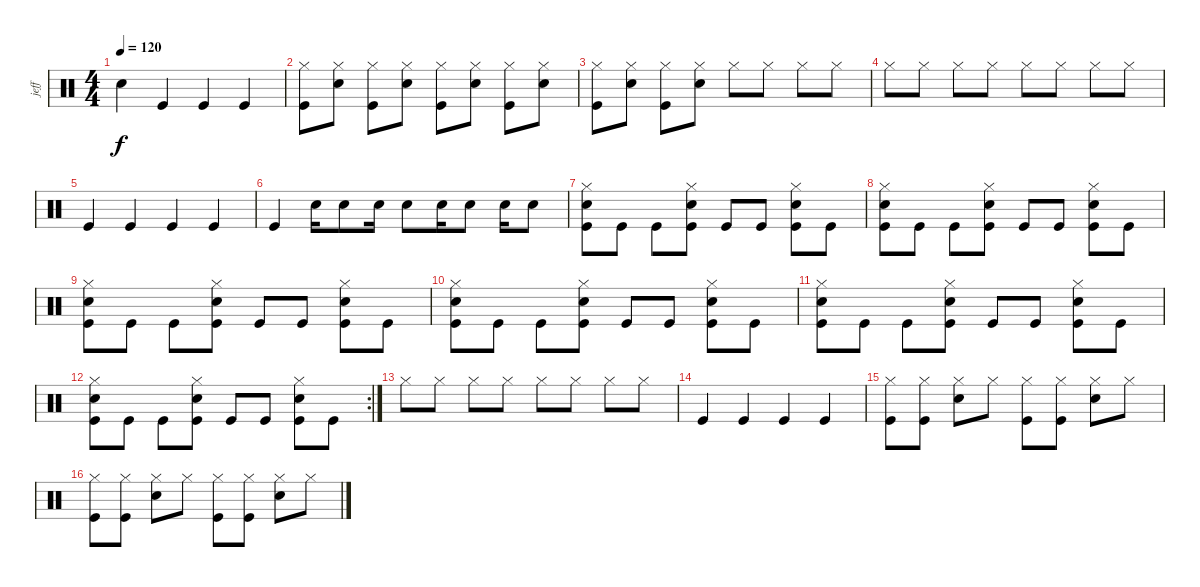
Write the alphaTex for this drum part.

\track ("jeff" "jeff") {instrument percussion}
\staff {score}
\articulation defaults
\ts (4 4)
\tempo 120
\clef neutral
\ks c "Snare (hit) 2".4{dy f} "Kick (hit)".4 "Kick (hit)".4 "Kick (hit)".4
|
("Hi-Hat (closed)" "Kick (hit)").8 ("Snare (hit) 2" "Hi-Hat (closed)").8 ("Kick (hit)" "Hi-Hat (closed)").8 ("Snare (hit) 2" "Hi-Hat (closed)").8 ("Kick (hit)" "Hi-Hat (closed)").8 ("Snare (hit) 2" "Hi-Hat (closed)").8 ("Kick (hit)" "Hi-Hat (closed)").8 ("Snare (hit) 2" "Hi-Hat (closed)").8 |
("Hi-Hat (closed)" "Kick (hit)").8 ("Snare (hit) 2" "Hi-Hat (closed)").8 ("Kick (hit)" "Hi-Hat (closed)").8 ("Snare (hit) 2" "Hi-Hat (closed)").8 "Hi-Hat (closed)".8 "Hi-Hat (closed)".8 "Hi-Hat (closed)".8 "Hi-Hat (closed)".8 |
"Hi-Hat (closed)".8 "Hi-Hat (closed)".8 "Hi-Hat (closed)".8 "Hi-Hat (closed)".8 "Hi-Hat (closed)".8 "Hi-Hat (closed)".8 "Hi-Hat (closed)".8 "Hi-Hat (closed)".8 |
"Kick (hit)".4 "Kick (hit)".4 "Kick (hit)".4 "Kick (hit)".4 |
"Kick (hit)".4 "Snare (hit) 2".16 "Snare (hit) 2".8 "Snare (hit) 2".16 "Snare (hit) 2".8 "Snare (hit) 2".16 "Snare (hit) 2".8 "Snare (hit) 2".16 "Snare (hit) 2".8 |
("Snare (hit) 2" "Hi-Hat (closed)" "Kick (hit)").8 "Kick (hit)".8 "Kick (hit)".8 ("Kick (hit)" "Hi-Hat (closed)" "Snare (hit) 2").8 "Kick (hit)".8 "Kick (hit)".8 ("Kick (hit)" "Snare (hit) 2" "Hi-Hat (closed)").8 "Kick (hit)".8 |
("Snare (hit) 2" "Hi-Hat (closed)" "Kick (hit)").8 "Kick (hit)".8 "Kick (hit)".8 ("Kick (hit)" "Hi-Hat (closed)" "Snare (hit) 2").8 "Kick (hit)".8 "Kick (hit)".8 ("Kick (hit)" "Snare (hit) 2" "Hi-Hat (closed)").8 "Kick (hit)".8 |
("Snare (hit) 2" "Hi-Hat (closed)" "Kick (hit)").8 "Kick (hit)".8 "Kick (hit)".8 ("Kick (hit)" "Hi-Hat (closed)" "Snare (hit) 2").8 "Kick (hit)".8 "Kick (hit)".8 ("Kick (hit)" "Snare (hit) 2" "Hi-Hat (closed)").8 "Kick (hit)".8 |
("Snare (hit) 2" "Hi-Hat (closed)" "Kick (hit)").8 "Kick (hit)".8 "Kick (hit)".8 ("Kick (hit)" "Hi-Hat (closed)" "Snare (hit) 2").8 "Kick (hit)".8 "Kick (hit)".8 ("Kick (hit)" "Snare (hit) 2" "Hi-Hat (closed)").8 "Kick (hit)".8 |
("Snare (hit) 2" "Hi-Hat (closed)" "Kick (hit)").8 "Kick (hit)".8 "Kick (hit)".8 ("Kick (hit)" "Hi-Hat (closed)" "Snare (hit) 2").8 "Kick (hit)".8 "Kick (hit)".8 ("Kick (hit)" "Snare (hit) 2" "Hi-Hat (closed)").8 "Kick (hit)".8 |
\rc 2
("Snare (hit) 2" "Hi-Hat (closed)" "Kick (hit)").8 "Kick (hit)".8 "Kick (hit)".8 ("Kick (hit)" "Hi-Hat (closed)" "Snare (hit) 2").8 "Kick (hit)".8 "Kick (hit)".8 ("Kick (hit)" "Snare (hit) 2" "Hi-Hat (closed)").8 "Kick (hit)".8 |
"Hi-Hat (closed)".8 "Hi-Hat (closed)".8 "Hi-Hat (closed)".8 "Hi-Hat (closed)".8 "Hi-Hat (closed)".8 "Hi-Hat (closed)".8 "Hi-Hat (closed)".8 "Hi-Hat (closed)".8 |
"Kick (hit)".4 "Kick (hit)".4 "Kick (hit)".4 "Kick (hit)".4 |
("Kick (hit)" "Hi-Hat (closed)").8 ("Kick (hit)" "Hi-Hat (closed)").8 ("Snare (hit) 2" "Hi-Hat (closed)").8 "Hi-Hat (closed)".8 ("Kick (hit)" "Hi-Hat (closed)").8 ("Kick (hit)" "Hi-Hat (closed)").8 ("Snare (hit) 2" "Hi-Hat (closed)").8 "Hi-Hat (closed)".8 |
("Kick (hit)" "Hi-Hat (closed)").8 ("Kick (hit)" "Hi-Hat (closed)").8 ("Snare (hit) 2" "Hi-Hat (closed)").8 "Hi-Hat (closed)".8 ("Kick (hit)" "Hi-Hat (closed)").8 ("Kick (hit)" "Hi-Hat (closed)").8 ("Snare (hit) 2" "Hi-Hat (closed)").8 "Hi-Hat (closed)".8
